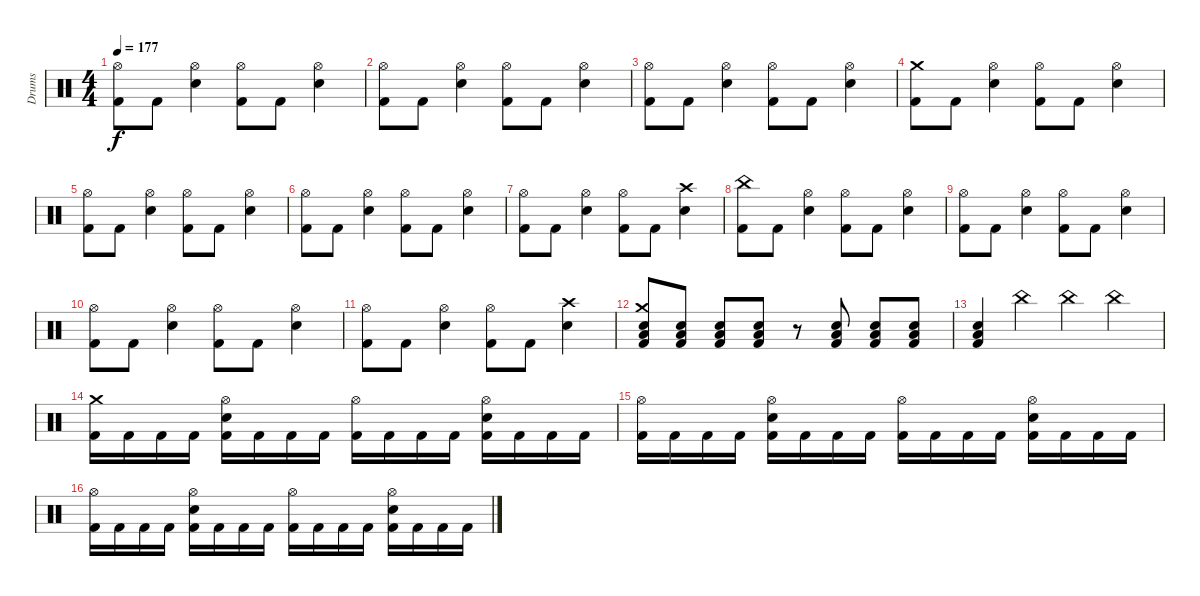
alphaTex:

\track ("Drums" "Drums") {instrument percussion}
\staff {score}
\articulation defaults
\ts (4 4)
\tempo 177
\clef neutral
\ks c
("Hi-Hat (open)" "Kick (hit) 2").8{dy f} "Kick (hit) 2".8 ("Hi-Hat (open)" "Snare (hit) 2").4 ("Hi-Hat (open)" "Kick (hit) 2").8 "Kick (hit) 2".8 ("Hi-Hat (open)" "Snare (hit) 2").4 |
("Hi-Hat (open)" "Kick (hit) 2").8 "Kick (hit) 2".8 ("Hi-Hat (open)" "Snare (hit) 2").4 ("Hi-Hat (open)" "Kick (hit) 2").8 "Kick (hit) 2".8 ("Hi-Hat (open)" "Snare (hit) 2").4 |
("Hi-Hat (open)" "Kick (hit) 2").8 "Kick (hit) 2".8 ("Hi-Hat (open)" "Snare (hit) 2").4 ("Hi-Hat (open)" "Kick (hit) 2").8 "Kick (hit) 2".8 ("Hi-Hat (open)" "Snare (hit) 2").4 |
("Crash medium (hit)" "Kick (hit) 2").8 "Kick (hit) 2".8 ("Hi-Hat (open)" "Snare (hit) 2").4 ("Hi-Hat (open)" "Kick (hit) 2").8 "Kick (hit) 2".8 ("Hi-Hat (open)" "Snare (hit) 2").4 |
("Hi-Hat (open)" "Kick (hit) 2").8 "Kick (hit) 2".8 ("Hi-Hat (open)" "Snare (hit) 2").4 ("Hi-Hat (open)" "Kick (hit) 2").8 "Kick (hit) 2".8 ("Hi-Hat (open)" "Snare (hit) 2").4 |
("Hi-Hat (open)" "Kick (hit) 2").8 "Kick (hit) 2".8 ("Hi-Hat (open)" "Snare (hit) 2").4 ("Hi-Hat (open)" "Kick (hit) 2").8 "Kick (hit) 2".8 ("Hi-Hat (open)" "Snare (hit) 2").4 |
("Hi-Hat (open)" "Kick (hit) 2").8 "Kick (hit) 2".8 ("Hi-Hat (open)" "Snare (hit) 2").4 ("Hi-Hat (open)" "Kick (hit) 2").8 "Kick (hit) 2".8 ("Crash high (hit)" "Snare (hit) 2").4 |
("China (hit)" "Kick (hit) 2").8 "Kick (hit) 2".8 ("Hi-Hat (open)" "Snare (hit) 2").4 ("Hi-Hat (open)" "Kick (hit) 2").8 "Kick (hit) 2".8 ("Hi-Hat (open)" "Snare (hit) 2").4 |
("Hi-Hat (open)" "Kick (hit) 2").8 "Kick (hit) 2".8 ("Hi-Hat (open)" "Snare (hit) 2").4 ("Hi-Hat (open)" "Kick (hit) 2").8 "Kick (hit) 2".8 ("Hi-Hat (open)" "Snare (hit) 2").4 |
("Hi-Hat (open)" "Kick (hit) 2").8 "Kick (hit) 2".8 ("Hi-Hat (open)" "Snare (hit) 2").4 ("Hi-Hat (open)" "Kick (hit) 2").8 "Kick (hit) 2".8 ("Hi-Hat (open)" "Snare (hit) 2").4 |
("Hi-Hat (open)" "Kick (hit) 2").8 "Kick (hit) 2".8 ("Hi-Hat (open)" "Snare (hit) 2").4 ("Hi-Hat (open)" "Kick (hit) 2").8 "Kick (hit) 2".8 ("Crash high (hit)" "Snare (hit) 2").4 |
("Crash medium (hit)" "Low Floor Tom (hit)" "Snare (hit) 2" "Kick (hit) 2").8 ("Low Floor Tom (hit)" "Snare (hit) 2" "Kick (hit) 2").8 ("Low Floor Tom (hit)" "Snare (hit) 2" "Kick (hit) 2").8 ("Low Floor Tom (hit)" "Snare (hit) 2" "Kick (hit) 2").8 r.8 ("Low Floor Tom (hit)" "Snare (hit) 2" "Kick (hit) 2").8 ("Low Floor Tom (hit)" "Snare (hit) 2" "Kick (hit) 2").8 ("Low Floor Tom (hit)" "Snare (hit) 2" "Kick (hit) 2").8 |
("Low Floor Tom (hit)" "Snare (hit) 2" "Kick (hit) 2").4 "China (hit)".4 "China (hit)".4 "China (hit)".4 |
("Crash medium (hit)" "Kick (hit) 2").16 "Kick (hit) 2".16 "Kick (hit) 2".16 "Kick (hit) 2".16 ("Hi-Hat (open)" "Snare (hit) 2" "Kick (hit) 2").16 "Kick (hit) 2".16 "Kick (hit) 2".16 "Kick (hit) 2".16 ("Hi-Hat (open)" "Kick (hit) 2").16 "Kick (hit) 2".16 "Kick (hit) 2".16 "Kick (hit) 2".16 ("Hi-Hat (open)" "Snare (hit) 2" "Kick (hit) 2").16 "Kick (hit) 2".16 "Kick (hit) 2".16 "Kick (hit) 2".16 |
("Hi-Hat (open)" "Kick (hit) 2").16 "Kick (hit) 2".16 "Kick (hit) 2".16 "Kick (hit) 2".16 ("Hi-Hat (open)" "Snare (hit) 2" "Kick (hit) 2").16 "Kick (hit) 2".16 "Kick (hit) 2".16 "Kick (hit) 2".16 ("Hi-Hat (open)" "Kick (hit) 2").16 "Kick (hit) 2".16 "Kick (hit) 2".16 "Kick (hit) 2".16 ("Hi-Hat (open)" "Snare (hit) 2" "Kick (hit) 2").16 "Kick (hit) 2".16 "Kick (hit) 2".16 "Kick (hit) 2".16 |
("Hi-Hat (open)" "Kick (hit) 2").16 "Kick (hit) 2".16 "Kick (hit) 2".16 "Kick (hit) 2".16 ("Hi-Hat (open)" "Snare (hit) 2" "Kick (hit) 2").16 "Kick (hit) 2".16 "Kick (hit) 2".16 "Kick (hit) 2".16 ("Hi-Hat (open)" "Kick (hit) 2").16 "Kick (hit) 2".16 "Kick (hit) 2".16 "Kick (hit) 2".16 ("Hi-Hat (open)" "Snare (hit) 2" "Kick (hit) 2").16 "Kick (hit) 2".16 "Kick (hit) 2".16 "Kick (hit) 2".16
